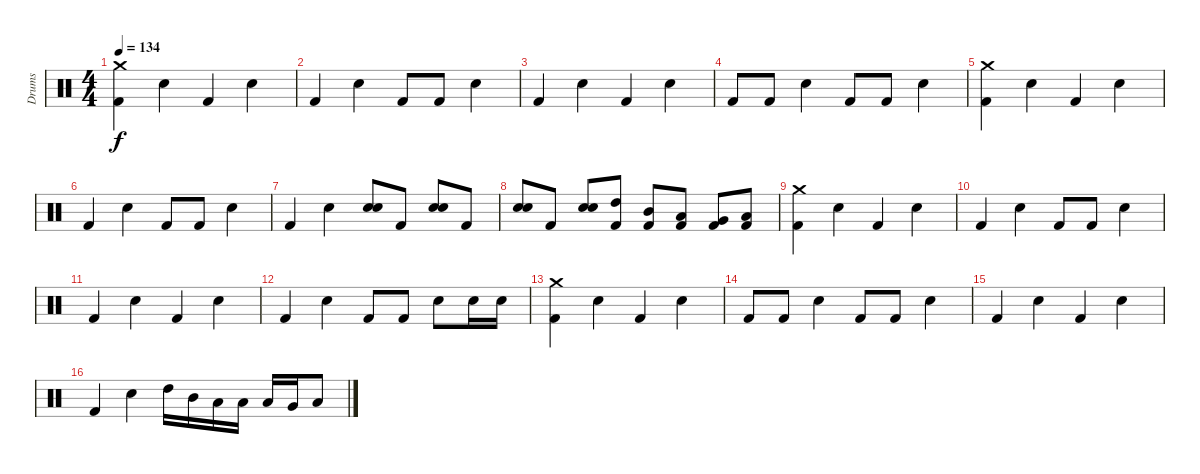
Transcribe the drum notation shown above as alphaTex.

\track ("Drums" "Drums") {instrument percussion}
\staff {score}
\articulation defaults
\ts (4 4)
\tempo 134
\clef neutral
\ks c
("Crash medium (hit)" "Kick (hit) 2").4{dy f} "Snare (hit) 2".4 "Kick (hit) 2".4 "Snare (hit) 2".4 |
"Kick (hit) 2".4 "Snare (hit) 2".4 "Kick (hit) 2".8 "Kick (hit) 2".8 "Snare (hit) 2".4 |
"Kick (hit) 2".4 "Snare (hit) 2".4 "Kick (hit) 2".4 "Snare (hit) 2".4 |
"Kick (hit) 2".8 "Kick (hit) 2".8 "Snare (hit) 2".4 "Kick (hit) 2".8 "Kick (hit) 2".8 "Snare (hit) 2".4 |
("Crash medium (hit)" "Kick (hit) 2").4 "Snare (hit) 2".4 "Kick (hit) 2".4 "Snare (hit) 2".4 |
"Kick (hit) 2".4 "Snare (hit) 2".4 "Kick (hit) 2".8 "Kick (hit) 2".8 "Snare (hit) 2".4 |
"Kick (hit) 2".4 "Snare (hit) 2".4 ("Snare (hit) 2" "Snare (hit) 2").8 "Kick (hit) 2".8 ("Snare (hit) 2" "Snare (hit) 2").8 "Kick (hit) 2".8 |
("Snare (hit) 2" "Snare (hit) 2").8 "Kick (hit) 2".8 ("Snare (hit) 2" "Snare (hit) 2").8 ("High Tom (hit)" "Kick (hit) 2").8 ("Mid Tom (hit)" "Kick (hit) 2").8 ("Low Tom (hit)" "Kick (hit) 2").8 ("Very Low Tom (hit)" "Kick (hit) 2").8 ("Low Floor Tom (hit)" "Kick (hit) 2").8 |
("Crash medium (hit)" "Kick (hit) 2").4 "Snare (hit) 2".4 "Kick (hit) 2".4 "Snare (hit) 2".4 |
"Kick (hit) 2".4 "Snare (hit) 2".4 "Kick (hit) 2".8 "Kick (hit) 2".8 "Snare (hit) 2".4 |
"Kick (hit) 2".4 "Snare (hit) 2".4 "Kick (hit) 2".4 "Snare (hit) 2".4 |
"Kick (hit) 2".4 "Snare (hit) 2".4 "Kick (hit) 2".8 "Kick (hit) 2".8 "Snare (hit) 2".8 "Snare (hit) 2".16 "Snare (hit) 2".16 |
("Crash medium (hit)" "Kick (hit) 2").4 "Snare (hit) 2".4 "Kick (hit) 2".4 "Snare (hit) 2".4 |
"Kick (hit) 2".8 "Kick (hit) 2".8 "Snare (hit) 2".4 "Kick (hit) 2".8 "Kick (hit) 2".8 "Snare (hit) 2".4 |
"Kick (hit) 2".4{volume 2} "Snare (hit) 2".4 "Kick (hit) 2".4 "Snare (hit) 2".4 |
"Kick (hit) 2".4 "Snare (hit) 2".4 "High Tom (hit)".16 "Mid Tom (hit)".16 "Low Tom (hit)".16 "Low Tom (hit)".16 "Low Tom (hit)".16 "Very Low Tom (hit)".16 "Low Floor Tom (hit)".8
